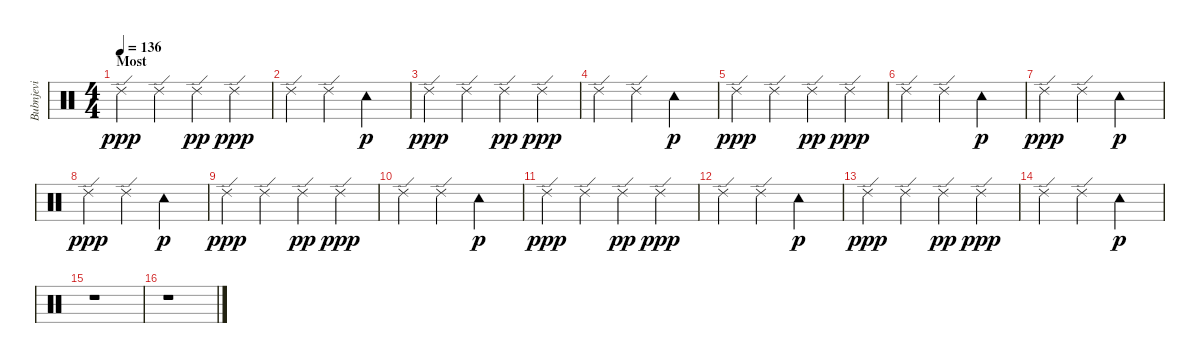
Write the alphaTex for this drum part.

\track ("Bubnjevi" "Bubnjevi") {instrument percussion}
\staff {score}
\articulation defaults
\ts (4 4)
\section ("" "Most")
\tempo 136
\clef neutral
\ks c "Ride (edge) 2".4{dy ppp} "Ride (edge) 2".4 "Ride (edge) 2".4{dy pp} "Ride (edge) 2".4{dy ppp}
|
"Ride (edge) 2".4 "Ride (edge) 2".4 "Tambourine (hit)".2{dy p} |
"Ride (edge) 2".4{dy ppp} "Ride (edge) 2".4 "Ride (edge) 2".4{dy pp} "Ride (edge) 2".4{dy ppp} |
"Ride (edge) 2".4 "Ride (edge) 2".4 "Tambourine (hit)".2{dy p} |
"Ride (edge) 2".4{dy ppp} "Ride (edge) 2".4 "Ride (edge) 2".4{dy pp} "Ride (edge) 2".4{dy ppp} |
"Ride (edge) 2".4 "Ride (edge) 2".4 "Tambourine (hit)".2{dy p} |
"Ride (edge) 2".4{dy ppp} "Ride (edge) 2".4 "Tambourine (hit)".2{dy p} |
"Ride (edge) 2".4{dy ppp} "Ride (edge) 2".4 "Tambourine (hit)".2{dy p} |
"Ride (edge) 2".4{dy ppp} "Ride (edge) 2".4 "Ride (edge) 2".4{dy pp} "Ride (edge) 2".4{dy ppp} |
"Ride (edge) 2".4 "Ride (edge) 2".4 "Tambourine (hit)".2{dy p} |
"Ride (edge) 2".4{dy ppp} "Ride (edge) 2".4 "Ride (edge) 2".4{dy pp} "Ride (edge) 2".4{dy ppp} |
"Ride (edge) 2".4 "Ride (edge) 2".4 "Tambourine (hit)".2{dy p} |
"Ride (edge) 2".4{dy ppp} "Ride (edge) 2".4 "Ride (edge) 2".4{dy pp} "Ride (edge) 2".4{dy ppp} |
"Ride (edge) 2".4 "Ride (edge) 2".4 "Tambourine (hit)".2{dy p} |
r.1 |
r.1
